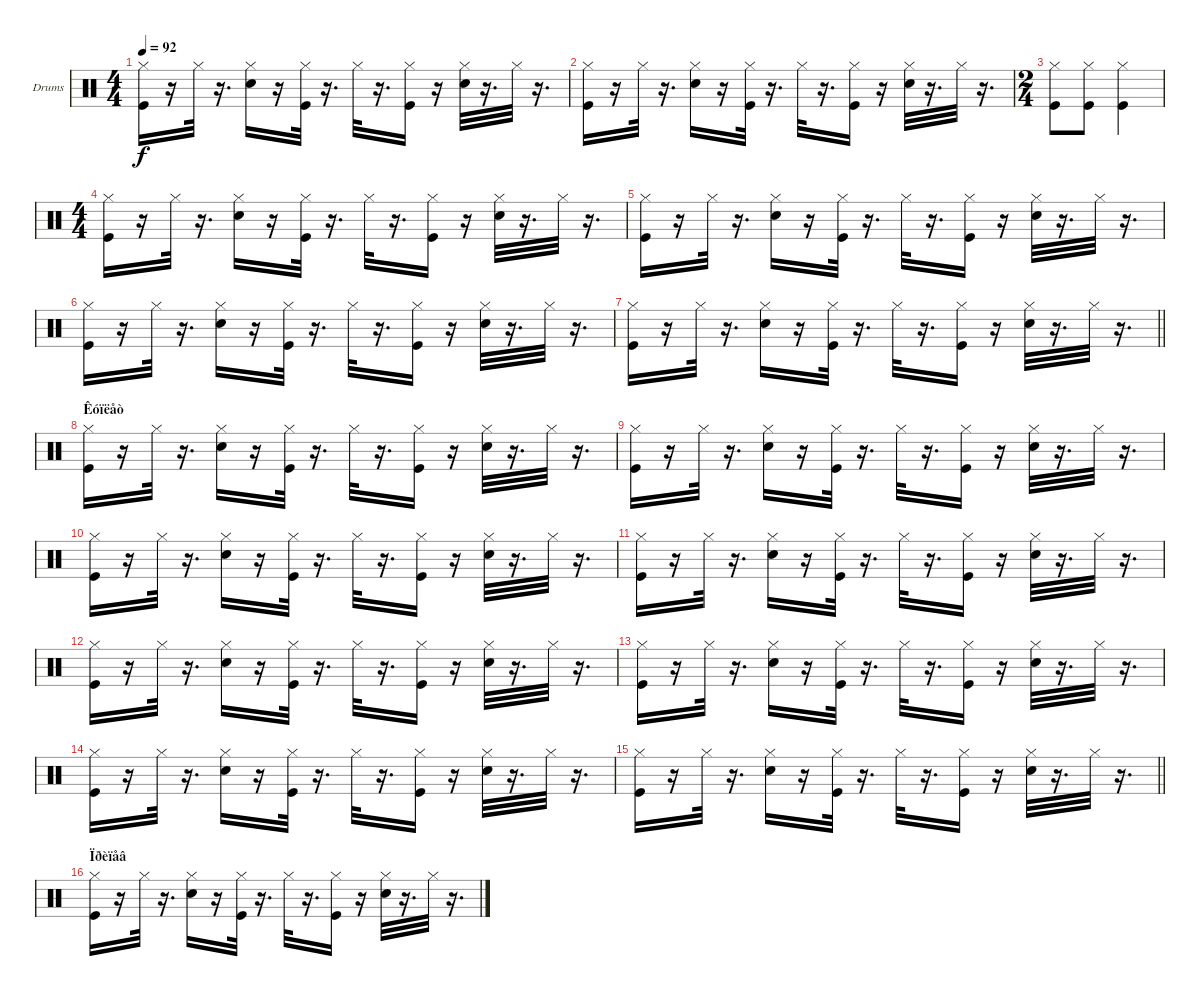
\bracketExtendMode groupsimilarinstruments
\firstSystemTrackNameOrientation horizontal
\otherSystemsTrackNameOrientation horizontal
\track ("Drumkit" "Drums") {instrument percussion}
\staff {score}
\articulation defaults
\ts (4 4)
\tempo 92
\clef neutral
\ks c
("Kick (hit)" "Hi-Hat (closed)").16{dy f} r.16 "Hi-Hat (closed)".32 r.16{d} ("Snare (hit) 2" "Hi-Hat (closed)").16 r.16 ("Kick (hit)" "Hi-Hat (closed)").32 r.16{d} "Hi-Hat (closed)".32 r.16{d} ("Kick (hit)" "Hi-Hat (closed)").16 r.16 ("Snare (hit) 2" "Hi-Hat (closed)").32 r.16{d} "Hi-Hat (closed)".32 r.16{d} |
("Kick (hit)" "Hi-Hat (closed)").16 r.16 "Hi-Hat (closed)".32 r.16{d} ("Snare (hit) 2" "Hi-Hat (closed)").16 r.16 ("Kick (hit)" "Hi-Hat (closed)").32 r.16{d} "Hi-Hat (closed)".32 r.16{d} ("Kick (hit)" "Hi-Hat (closed)").16 r.16 ("Snare (hit) 2" "Hi-Hat (closed)").32 r.16{d} "Hi-Hat (closed)".32 r.16{d} |
\ts (2 4)
\beaming (8 2 2 2 2)
("Kick (hit)" "Hi-Hat (closed)").8 ("Kick (hit)" "Hi-Hat (closed)").8 ("Kick (hit)" "Hi-Hat (closed)").4 |
\ts (4 4)
\beaming (8 2 2 2 2)
("Kick (hit)" "Hi-Hat (closed)").16 r.16 "Hi-Hat (closed)".32 r.16{d} ("Snare (hit) 2" "Hi-Hat (closed)").16 r.16 ("Kick (hit)" "Hi-Hat (closed)").32 r.16{d} "Hi-Hat (closed)".32 r.16{d} ("Kick (hit)" "Hi-Hat (closed)").16 r.16 ("Snare (hit) 2" "Hi-Hat (closed)").32 r.16{d} "Hi-Hat (closed)".32 r.16{d} |
("Kick (hit)" "Hi-Hat (closed)").16 r.16 "Hi-Hat (closed)".32 r.16{d} ("Snare (hit) 2" "Hi-Hat (closed)").16 r.16 ("Kick (hit)" "Hi-Hat (closed)").32 r.16{d} "Hi-Hat (closed)".32 r.16{d} ("Kick (hit)" "Hi-Hat (closed)").16 r.16 ("Snare (hit) 2" "Hi-Hat (closed)").32 r.16{d} "Hi-Hat (closed)".32 r.16{d} |
("Kick (hit)" "Hi-Hat (closed)").16 r.16 "Hi-Hat (closed)".32 r.16{d} ("Snare (hit) 2" "Hi-Hat (closed)").16 r.16 ("Kick (hit)" "Hi-Hat (closed)").32 r.16{d} "Hi-Hat (closed)".32 r.16{d} ("Kick (hit)" "Hi-Hat (closed)").16 r.16 ("Snare (hit) 2" "Hi-Hat (closed)").32 r.16{d} "Hi-Hat (closed)".32 r.16{d} |
\barLineRight lightlight
("Kick (hit)" "Hi-Hat (closed)").16 r.16 "Hi-Hat (closed)".32 r.16{d} ("Snare (hit) 2" "Hi-Hat (closed)").16 r.16 ("Kick (hit)" "Hi-Hat (closed)").32 r.16{d} "Hi-Hat (closed)".32 r.16{d} ("Kick (hit)" "Hi-Hat (closed)").16 r.16 ("Snare (hit) 2" "Hi-Hat (closed)").32 r.16{d} "Hi-Hat (closed)".32 r.16{d} |
\section ("" "Êóïëåò")
("Kick (hit)" "Hi-Hat (closed)").16 r.16 "Hi-Hat (closed)".32 r.16{d} ("Snare (hit) 2" "Hi-Hat (closed)").16 r.16 ("Kick (hit)" "Hi-Hat (closed)").32 r.16{d} "Hi-Hat (closed)".32 r.16{d} ("Kick (hit)" "Hi-Hat (closed)").16 r.16 ("Snare (hit) 2" "Hi-Hat (closed)").32 r.16{d} "Hi-Hat (closed)".32 r.16{d} |
("Kick (hit)" "Hi-Hat (closed)").16 r.16 "Hi-Hat (closed)".32 r.16{d} ("Snare (hit) 2" "Hi-Hat (closed)").16 r.16 ("Kick (hit)" "Hi-Hat (closed)").32 r.16{d} "Hi-Hat (closed)".32 r.16{d} ("Kick (hit)" "Hi-Hat (closed)").16 r.16 ("Snare (hit) 2" "Hi-Hat (closed)").32 r.16{d} "Hi-Hat (closed)".32 r.16{d} |
("Kick (hit)" "Hi-Hat (closed)").16 r.16 "Hi-Hat (closed)".32 r.16{d} ("Snare (hit) 2" "Hi-Hat (closed)").16 r.16 ("Kick (hit)" "Hi-Hat (closed)").32 r.16{d} "Hi-Hat (closed)".32 r.16{d} ("Kick (hit)" "Hi-Hat (closed)").16 r.16 ("Snare (hit) 2" "Hi-Hat (closed)").32 r.16{d} "Hi-Hat (closed)".32 r.16{d} |
("Kick (hit)" "Hi-Hat (closed)").16 r.16 "Hi-Hat (closed)".32 r.16{d} ("Snare (hit) 2" "Hi-Hat (closed)").16 r.16 ("Kick (hit)" "Hi-Hat (closed)").32 r.16{d} "Hi-Hat (closed)".32 r.16{d} ("Kick (hit)" "Hi-Hat (closed)").16 r.16 ("Snare (hit) 2" "Hi-Hat (closed)").32 r.16{d} "Hi-Hat (closed)".32 r.16{d} |
("Kick (hit)" "Hi-Hat (closed)").16 r.16 "Hi-Hat (closed)".32 r.16{d} ("Snare (hit) 2" "Hi-Hat (closed)").16 r.16 ("Kick (hit)" "Hi-Hat (closed)").32 r.16{d} "Hi-Hat (closed)".32 r.16{d} ("Kick (hit)" "Hi-Hat (closed)").16 r.16 ("Snare (hit) 2" "Hi-Hat (closed)").32 r.16{d} "Hi-Hat (closed)".32 r.16{d} |
("Kick (hit)" "Hi-Hat (closed)").16 r.16 "Hi-Hat (closed)".32 r.16{d} ("Snare (hit) 2" "Hi-Hat (closed)").16 r.16 ("Kick (hit)" "Hi-Hat (closed)").32 r.16{d} "Hi-Hat (closed)".32 r.16{d} ("Kick (hit)" "Hi-Hat (closed)").16 r.16 ("Snare (hit) 2" "Hi-Hat (closed)").32 r.16{d} "Hi-Hat (closed)".32 r.16{d} |
("Kick (hit)" "Hi-Hat (closed)").16 r.16 "Hi-Hat (closed)".32 r.16{d} ("Snare (hit) 2" "Hi-Hat (closed)").16 r.16 ("Kick (hit)" "Hi-Hat (closed)").32 r.16{d} "Hi-Hat (closed)".32 r.16{d} ("Kick (hit)" "Hi-Hat (closed)").16 r.16 ("Snare (hit) 2" "Hi-Hat (closed)").32 r.16{d} "Hi-Hat (closed)".32 r.16{d} |
\barLineRight lightlight
("Kick (hit)" "Hi-Hat (closed)").16 r.16 "Hi-Hat (closed)".32 r.16{d} ("Snare (hit) 2" "Hi-Hat (closed)").16 r.16 ("Kick (hit)" "Hi-Hat (closed)").32 r.16{d} "Hi-Hat (closed)".32 r.16{d} ("Kick (hit)" "Hi-Hat (closed)").16 r.16 ("Snare (hit) 2" "Hi-Hat (closed)").32 r.16{d} "Hi-Hat (closed)".32 r.16{d} |
\section ("" "Ïðèïåâ")
("Kick (hit)" "Hi-Hat (closed)").16 r.16 "Hi-Hat (closed)".32 r.16{d} ("Snare (hit) 2" "Hi-Hat (closed)").16 r.16 ("Kick (hit)" "Hi-Hat (closed)").32 r.16{d} "Hi-Hat (closed)".32 r.16{d} ("Kick (hit)" "Hi-Hat (closed)").16 r.16 ("Snare (hit) 2" "Hi-Hat (closed)").32 r.16{d} "Hi-Hat (closed)".32 r.16{d}
